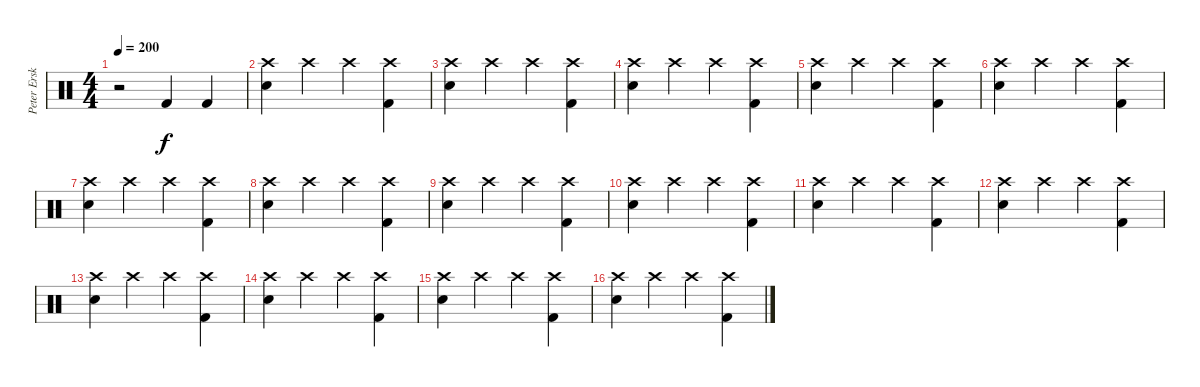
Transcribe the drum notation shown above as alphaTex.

\track ("Peter Erskine" "Peter Ersk") {instrument percussion}
\staff {score}
\articulation defaults
\ts (4 4)
\tempo 200
\clef neutral
\ks c
r.2{dy f} "Kick (hit) 2".4 "Kick (hit) 2".4 |
("Crash high (hit)" "Snare (hit) 2").4 "Crash high (hit)".4 "Crash high (hit)".4 ("Crash high (hit)" "Kick (hit) 2").4 |
("Crash high (hit)" "Snare (hit) 2").4 "Crash high (hit)".4 "Crash high (hit)".4 ("Crash high (hit)" "Kick (hit) 2").4 |
("Crash high (hit)" "Snare (hit) 2").4 "Crash high (hit)".4 "Crash high (hit)".4 ("Crash high (hit)" "Kick (hit) 2").4 |
("Crash high (hit)" "Snare (hit) 2").4 "Crash high (hit)".4 "Crash high (hit)".4 ("Crash high (hit)" "Kick (hit) 2").4 |
("Crash high (hit)" "Snare (hit) 2").4 "Crash high (hit)".4 "Crash high (hit)".4 ("Crash high (hit)" "Kick (hit) 2").4 |
("Crash high (hit)" "Snare (hit) 2").4 "Crash high (hit)".4 "Crash high (hit)".4 ("Crash high (hit)" "Kick (hit) 2").4 |
("Crash high (hit)" "Snare (hit) 2").4 "Crash high (hit)".4 "Crash high (hit)".4 ("Crash high (hit)" "Kick (hit) 2").4 |
("Crash high (hit)" "Snare (hit) 2").4 "Crash high (hit)".4 "Crash high (hit)".4 ("Crash high (hit)" "Kick (hit) 2").4 |
("Crash high (hit)" "Snare (hit) 2").4 "Crash high (hit)".4 "Crash high (hit)".4 ("Crash high (hit)" "Kick (hit) 2").4 |
("Crash high (hit)" "Snare (hit) 2").4 "Crash high (hit)".4 "Crash high (hit)".4 ("Crash high (hit)" "Kick (hit) 2").4 |
("Crash high (hit)" "Snare (hit) 2").4 "Crash high (hit)".4 "Crash high (hit)".4 ("Crash high (hit)" "Kick (hit) 2").4 |
("Crash high (hit)" "Snare (hit) 2").4 "Crash high (hit)".4 "Crash high (hit)".4 ("Crash high (hit)" "Kick (hit) 2").4 |
("Crash high (hit)" "Snare (hit) 2").4 "Crash high (hit)".4 "Crash high (hit)".4 ("Crash high (hit)" "Kick (hit) 2").4 |
("Crash high (hit)" "Snare (hit) 2").4 "Crash high (hit)".4 "Crash high (hit)".4 ("Crash high (hit)" "Kick (hit) 2").4 |
("Crash high (hit)" "Snare (hit) 2").4 "Crash high (hit)".4 "Crash high (hit)".4 ("Crash high (hit)" "Kick (hit) 2").4
